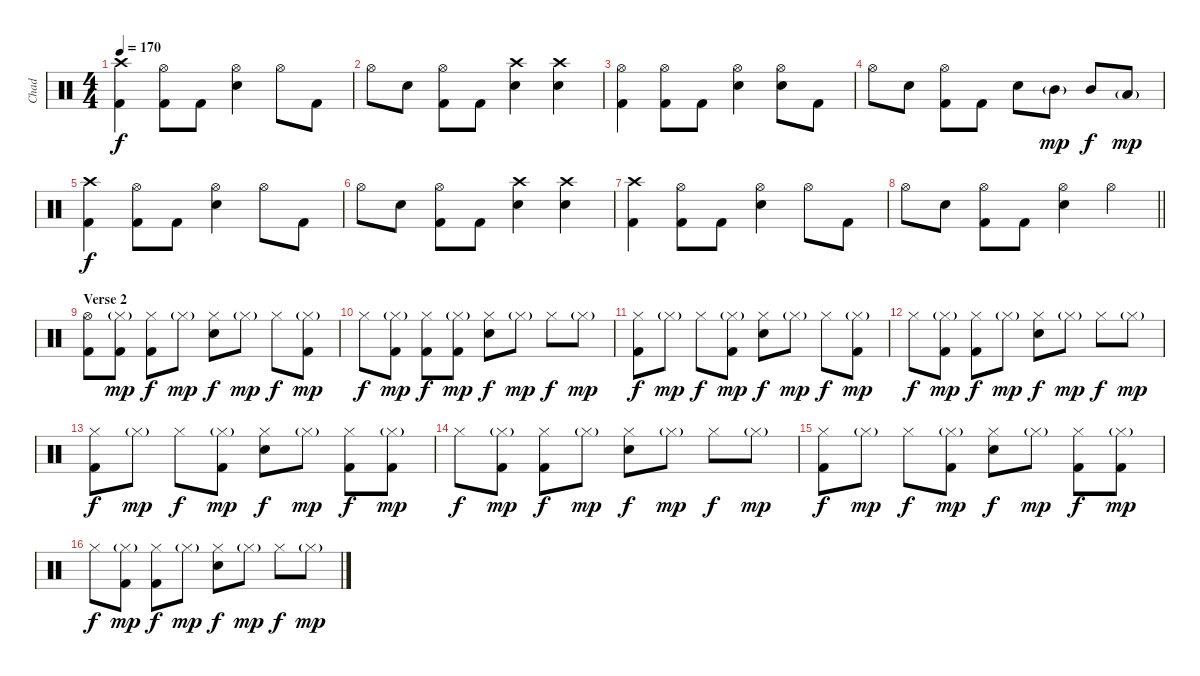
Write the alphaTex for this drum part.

\track ("Chad" "Chad") {instrument percussion}
\staff {score}
\articulation defaults
\ts (4 4)
\tempo 170
\clef neutral
\ks c
("Crash high (hit)" "Kick (hit) 2").4{dy f} ("Hi-Hat (open)" "Kick (hit) 2").8 "Kick (hit) 2".8 ("Hi-Hat (open)" "Snare (hit) 2").4 "Hi-Hat (open)".8 "Kick (hit) 2".8 |
"Hi-Hat (open)".8 "Snare (hit) 2".8 ("Hi-Hat (open)" "Kick (hit) 2").8 "Kick (hit) 2".8 ("Crash high (hit)" "Snare (hit) 2").4 ("Crash high (hit)" "Snare (hit) 2").4 |
("Hi-Hat (open)" "Kick (hit) 2").4 ("Hi-Hat (open)" "Kick (hit) 2").8 "Kick (hit) 2".8 ("Hi-Hat (open)" "Snare (hit) 2").4 ("Hi-Hat (open)" "Snare (hit) 2").8 "Kick (hit) 2".8 |
"Hi-Hat (open)".8 "Snare (hit) 2".8 ("Hi-Hat (open)" "Kick (hit) 2").8 "Kick (hit) 2".8 "Snare (hit) 2".8 "Mid Tom (hit)"{g}.8{dy mp} "Mid Tom (hit)".8{dy f} "Low Tom (hit)"{g}.8{dy mp} |
("Crash high (hit)" "Kick (hit) 2").4{dy f} ("Hi-Hat (open)" "Kick (hit) 2").8 "Kick (hit) 2".8 ("Hi-Hat (open)" "Snare (hit) 2").4 "Hi-Hat (open)".8 "Kick (hit) 2".8 |
"Hi-Hat (open)".8 "Snare (hit) 2".8 ("Hi-Hat (open)" "Kick (hit) 2").8 "Kick (hit) 2".8 ("Crash high (hit)" "Snare (hit) 2").4 ("Crash high (hit)" "Snare (hit) 2").4 |
("Crash high (hit)" "Kick (hit) 2").4 ("Hi-Hat (open)" "Kick (hit) 2").8 "Kick (hit) 2".8 ("Hi-Hat (open)" "Snare (hit) 2").4 "Hi-Hat (open)".8 "Kick (hit) 2".8 |
\barLineRight lightlight "Hi-Hat (open)".8 "Snare (hit) 2".8
("Hi-Hat (open)" "Kick (hit) 2").8 "Kick (hit) 2".8 ("Hi-Hat (open)" "Snare (hit) 2").4 "Hi-Hat (open)".4 |
\section ("" "Verse 2")
("Hi-Hat (open)" "Kick (hit) 2").8 ("Hi-Hat (closed)"{g} "Kick (hit) 2").8{dy mp} ("Hi-Hat (closed)" "Kick (hit) 2").8{dy f} "Hi-Hat (closed)"{g}.8{dy mp} ("Hi-Hat (closed)" "Snare (hit) 2").8{dy f} "Hi-Hat (closed)"{g}.8{dy mp} "Hi-Hat (closed)".8{dy f} ("Hi-Hat (closed)"{g} "Kick (hit) 2").8{dy mp} |
"Hi-Hat (closed)".8{dy f} ("Hi-Hat (closed)"{g} "Kick (hit) 2").8{dy mp} ("Hi-Hat (closed)" "Kick (hit) 2").8{dy f} ("Hi-Hat (closed)"{g} "Kick (hit) 2").8{dy mp} ("Hi-Hat (closed)" "Snare (hit) 2").8{dy f} "Hi-Hat (closed)"{g}.8{dy mp} "Hi-Hat (closed)".8{dy f} "Hi-Hat (closed)"{g}.8{dy mp} |
("Hi-Hat (closed)" "Kick (hit) 2").8{dy f} "Hi-Hat (closed)"{g}.8{dy mp} "Hi-Hat (closed)".8{dy f} ("Hi-Hat (closed)"{g} "Kick (hit) 2").8{dy mp} ("Hi-Hat (closed)" "Snare (hit) 2").8{dy f} "Hi-Hat (closed)"{g}.8{dy mp} "Hi-Hat (closed)".8{dy f} ("Hi-Hat (closed)"{g} "Kick (hit) 2").8{dy mp} |
"Hi-Hat (closed)".8{dy f} ("Hi-Hat (closed)"{g} "Kick (hit) 2").8{dy mp} ("Hi-Hat (closed)" "Kick (hit) 2").8{dy f} "Hi-Hat (closed)"{g}.8{dy mp} ("Hi-Hat (closed)" "Snare (hit) 2").8{dy f} "Hi-Hat (closed)"{g}.8{dy mp} "Hi-Hat (closed)".8{dy f} "Hi-Hat (closed)"{g}.8{dy mp} |
("Hi-Hat (closed)" "Kick (hit) 2").8{dy f} "Hi-Hat (closed)"{g}.8{dy mp} "Hi-Hat (closed)".8{dy f} ("Hi-Hat (closed)"{g} "Kick (hit) 2").8{dy mp} ("Hi-Hat (closed)" "Snare (hit) 2").8{dy f} "Hi-Hat (closed)"{g}.8{dy mp} ("Hi-Hat (closed)" "Kick (hit) 2").8{dy f} ("Hi-Hat (closed)"{g} "Kick (hit) 2").8{dy mp} |
"Hi-Hat (closed)".8{dy f} ("Hi-Hat (closed)"{g} "Kick (hit) 2").8{dy mp} ("Hi-Hat (closed)" "Kick (hit) 2").8{dy f} "Hi-Hat (closed)"{g}.8{dy mp} ("Hi-Hat (closed)" "Snare (hit) 2").8{dy f} "Hi-Hat (closed)"{g}.8{dy mp} "Hi-Hat (closed)".8{dy f} "Hi-Hat (closed)"{g}.8{dy mp} |
("Hi-Hat (closed)" "Kick (hit) 2").8{dy f} "Hi-Hat (closed)"{g}.8{dy mp} "Hi-Hat (closed)".8{dy f} ("Hi-Hat (closed)"{g} "Kick (hit) 2").8{dy mp} ("Hi-Hat (closed)" "Snare (hit) 2").8{dy f} "Hi-Hat (closed)"{g}.8{dy mp} ("Hi-Hat (closed)" "Kick (hit) 2").8{dy f} ("Hi-Hat (closed)"{g} "Kick (hit) 2").8{dy mp} |
"Hi-Hat (closed)".8{dy f} ("Hi-Hat (closed)"{g} "Kick (hit) 2").8{dy mp} ("Hi-Hat (closed)" "Kick (hit) 2").8{dy f} "Hi-Hat (closed)"{g}.8{dy mp} ("Hi-Hat (closed)" "Snare (hit) 2").8{dy f} "Hi-Hat (closed)"{g}.8{dy mp} "Hi-Hat (closed)".8{dy f} "Hi-Hat (closed)"{g}.8{dy mp}
